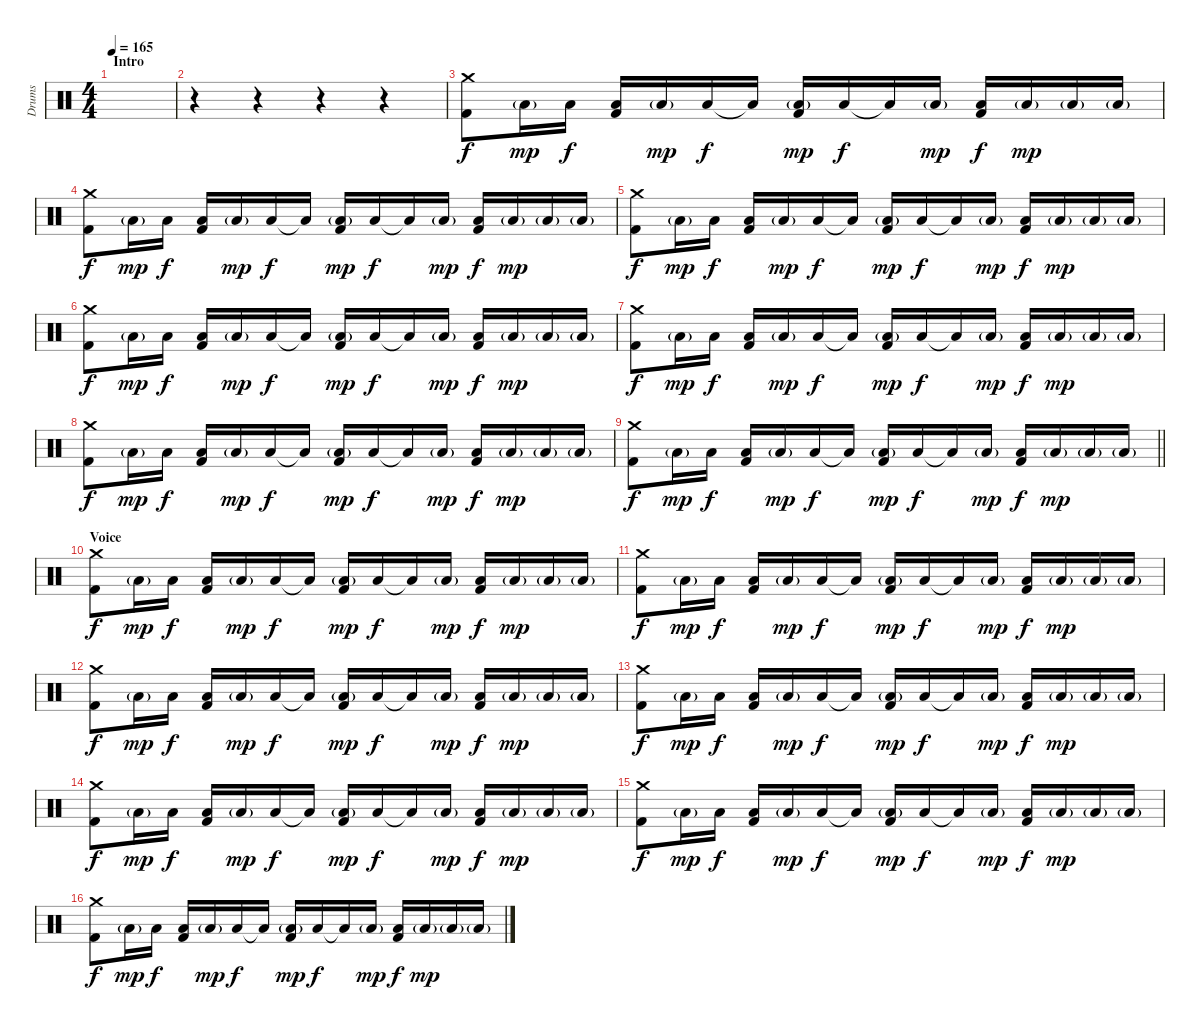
\track ("Drums" "Drums") {instrument percussion}
\staff {score}
\articulation defaults
\ts (4 4)
\section ("" "Intro")
\tempo 165
\clef neutral
\ks c
|
r.4 r.4 r.4 r.4 |
("Crash medium (hit)" "Kick (hit) 2").8 "Low Tom (hit)"{g}.16{dy mp} "Low Tom (hit)".16{dy f} ("Low Tom (hit)" "Kick (hit) 2").16 "Low Tom (hit)"{g}.16{dy mp} "Low Tom (hit)".16{dy f} "Low Tom (hit)"{t}.16 ("Low Tom (hit)"{g} "Kick (hit) 2").16{dy mp} "Low Tom (hit)".16{dy f} "Low Tom (hit)"{t}.16 "Low Tom (hit)"{g}.16{dy mp} ("Low Tom (hit)" "Kick (hit) 2").16{dy f} "Low Tom (hit)"{g}.16{dy mp} "Low Tom (hit)"{g}.16 "Low Tom (hit)"{g}.16 |
("Crash medium (hit)" "Kick (hit) 2").8{dy f} "Low Tom (hit)"{g}.16{dy mp} "Low Tom (hit)".16{dy f} ("Low Tom (hit)" "Kick (hit) 2").16 "Low Tom (hit)"{g}.16{dy mp} "Low Tom (hit)".16{dy f} "Low Tom (hit)"{t}.16 ("Low Tom (hit)"{g} "Kick (hit) 2").16{dy mp} "Low Tom (hit)".16{dy f} "Low Tom (hit)"{t}.16 "Low Tom (hit)"{g}.16{dy mp} ("Low Tom (hit)" "Kick (hit) 2").16{dy f} "Low Tom (hit)"{g}.16{dy mp} "Low Tom (hit)"{g}.16 "Low Tom (hit)"{g}.16 |
("Crash medium (hit)" "Kick (hit) 2").8{dy f} "Low Tom (hit)"{g}.16{dy mp} "Low Tom (hit)".16{dy f} ("Low Tom (hit)" "Kick (hit) 2").16 "Low Tom (hit)"{g}.16{dy mp} "Low Tom (hit)".16{dy f} "Low Tom (hit)"{t}.16 ("Low Tom (hit)"{g} "Kick (hit) 2").16{dy mp} "Low Tom (hit)".16{dy f} "Low Tom (hit)"{t}.16 "Low Tom (hit)"{g}.16{dy mp} ("Low Tom (hit)" "Kick (hit) 2").16{dy f} "Low Tom (hit)"{g}.16{dy mp} "Low Tom (hit)"{g}.16 "Low Tom (hit)"{g}.16 |
("Crash medium (hit)" "Kick (hit) 2").8{dy f} "Low Tom (hit)"{g}.16{dy mp} "Low Tom (hit)".16{dy f} ("Low Tom (hit)" "Kick (hit) 2").16 "Low Tom (hit)"{g}.16{dy mp} "Low Tom (hit)".16{dy f} "Low Tom (hit)"{t}.16 ("Low Tom (hit)"{g} "Kick (hit) 2").16{dy mp} "Low Tom (hit)".16{dy f} "Low Tom (hit)"{t}.16 "Low Tom (hit)"{g}.16{dy mp} ("Low Tom (hit)" "Kick (hit) 2").16{dy f} "Low Tom (hit)"{g}.16{dy mp} "Low Tom (hit)"{g}.16 "Low Tom (hit)"{g}.16 |
("Crash medium (hit)" "Kick (hit) 2").8{dy f} "Low Tom (hit)"{g}.16{dy mp} "Low Tom (hit)".16{dy f} ("Low Tom (hit)" "Kick (hit) 2").16 "Low Tom (hit)"{g}.16{dy mp} "Low Tom (hit)".16{dy f} "Low Tom (hit)"{t}.16 ("Low Tom (hit)"{g} "Kick (hit) 2").16{dy mp} "Low Tom (hit)".16{dy f} "Low Tom (hit)"{t}.16 "Low Tom (hit)"{g}.16{dy mp} ("Low Tom (hit)" "Kick (hit) 2").16{dy f} "Low Tom (hit)"{g}.16{dy mp} "Low Tom (hit)"{g}.16 "Low Tom (hit)"{g}.16 |
("Crash medium (hit)" "Kick (hit) 2").8{dy f} "Low Tom (hit)"{g}.16{dy mp} "Low Tom (hit)".16{dy f} ("Low Tom (hit)" "Kick (hit) 2").16 "Low Tom (hit)"{g}.16{dy mp} "Low Tom (hit)".16{dy f} "Low Tom (hit)"{t}.16 ("Low Tom (hit)"{g} "Kick (hit) 2").16{dy mp} "Low Tom (hit)".16{dy f} "Low Tom (hit)"{t}.16 "Low Tom (hit)"{g}.16{dy mp} ("Low Tom (hit)" "Kick (hit) 2").16{dy f} "Low Tom (hit)"{g}.16{dy mp} "Low Tom (hit)"{g}.16 "Low Tom (hit)"{g}.16 |
\barLineRight lightlight
("Crash medium (hit)" "Kick (hit) 2").8{dy f} "Low Tom (hit)"{g}.16{dy mp} "Low Tom (hit)".16{dy f} ("Low Tom (hit)" "Kick (hit) 2").16 "Low Tom (hit)"{g}.16{dy mp} "Low Tom (hit)".16{dy f} "Low Tom (hit)"{t}.16 ("Low Tom (hit)"{g} "Kick (hit) 2").16{dy mp} "Low Tom (hit)".16{dy f} "Low Tom (hit)"{t}.16 "Low Tom (hit)"{g}.16{dy mp} ("Low Tom (hit)" "Kick (hit) 2").16{dy f} "Low Tom (hit)"{g}.16{dy mp} "Low Tom (hit)"{g}.16 "Low Tom (hit)"{g}.16 |
\section ("" "Voice")
("Crash medium (hit)" "Kick (hit) 2").8{dy f} "Low Tom (hit)"{g}.16{dy mp} "Low Tom (hit)".16{dy f} ("Low Tom (hit)" "Kick (hit) 2").16 "Low Tom (hit)"{g}.16{dy mp} "Low Tom (hit)".16{dy f} "Low Tom (hit)"{t}.16 ("Low Tom (hit)"{g} "Kick (hit) 2").16{dy mp} "Low Tom (hit)".16{dy f} "Low Tom (hit)"{t}.16 "Low Tom (hit)"{g}.16{dy mp} ("Low Tom (hit)" "Kick (hit) 2").16{dy f} "Low Tom (hit)"{g}.16{dy mp} "Low Tom (hit)"{g}.16 "Low Tom (hit)"{g}.16 |
("Crash medium (hit)" "Kick (hit) 2").8{dy f} "Low Tom (hit)"{g}.16{dy mp} "Low Tom (hit)".16{dy f} ("Low Tom (hit)" "Kick (hit) 2").16 "Low Tom (hit)"{g}.16{dy mp} "Low Tom (hit)".16{dy f} "Low Tom (hit)"{t}.16 ("Low Tom (hit)"{g} "Kick (hit) 2").16{dy mp} "Low Tom (hit)".16{dy f} "Low Tom (hit)"{t}.16 "Low Tom (hit)"{g}.16{dy mp} ("Low Tom (hit)" "Kick (hit) 2").16{dy f} "Low Tom (hit)"{g}.16{dy mp} "Low Tom (hit)"{g}.16 "Low Tom (hit)"{g}.16 |
("Crash medium (hit)" "Kick (hit) 2").8{dy f} "Low Tom (hit)"{g}.16{dy mp} "Low Tom (hit)".16{dy f} ("Low Tom (hit)" "Kick (hit) 2").16 "Low Tom (hit)"{g}.16{dy mp} "Low Tom (hit)".16{dy f} "Low Tom (hit)"{t}.16 ("Low Tom (hit)"{g} "Kick (hit) 2").16{dy mp} "Low Tom (hit)".16{dy f} "Low Tom (hit)"{t}.16 "Low Tom (hit)"{g}.16{dy mp} ("Low Tom (hit)" "Kick (hit) 2").16{dy f} "Low Tom (hit)"{g}.16{dy mp} "Low Tom (hit)"{g}.16 "Low Tom (hit)"{g}.16 |
("Crash medium (hit)" "Kick (hit) 2").8{dy f} "Low Tom (hit)"{g}.16{dy mp} "Low Tom (hit)".16{dy f} ("Low Tom (hit)" "Kick (hit) 2").16 "Low Tom (hit)"{g}.16{dy mp} "Low Tom (hit)".16{dy f} "Low Tom (hit)"{t}.16 ("Low Tom (hit)"{g} "Kick (hit) 2").16{dy mp} "Low Tom (hit)".16{dy f} "Low Tom (hit)"{t}.16 "Low Tom (hit)"{g}.16{dy mp} ("Low Tom (hit)" "Kick (hit) 2").16{dy f} "Low Tom (hit)"{g}.16{dy mp} "Low Tom (hit)"{g}.16 "Low Tom (hit)"{g}.16 |
("Crash medium (hit)" "Kick (hit) 2").8{dy f} "Low Tom (hit)"{g}.16{dy mp} "Low Tom (hit)".16{dy f} ("Low Tom (hit)" "Kick (hit) 2").16 "Low Tom (hit)"{g}.16{dy mp} "Low Tom (hit)".16{dy f} "Low Tom (hit)"{t}.16 ("Low Tom (hit)"{g} "Kick (hit) 2").16{dy mp} "Low Tom (hit)".16{dy f} "Low Tom (hit)"{t}.16 "Low Tom (hit)"{g}.16{dy mp} ("Low Tom (hit)" "Kick (hit) 2").16{dy f} "Low Tom (hit)"{g}.16{dy mp} "Low Tom (hit)"{g}.16 "Low Tom (hit)"{g}.16 |
("Crash medium (hit)" "Kick (hit) 2").8{dy f} "Low Tom (hit)"{g}.16{dy mp} "Low Tom (hit)".16{dy f} ("Low Tom (hit)" "Kick (hit) 2").16 "Low Tom (hit)"{g}.16{dy mp} "Low Tom (hit)".16{dy f} "Low Tom (hit)"{t}.16 ("Low Tom (hit)"{g} "Kick (hit) 2").16{dy mp} "Low Tom (hit)".16{dy f} "Low Tom (hit)"{t}.16 "Low Tom (hit)"{g}.16{dy mp} ("Low Tom (hit)" "Kick (hit) 2").16{dy f} "Low Tom (hit)"{g}.16{dy mp} "Low Tom (hit)"{g}.16 "Low Tom (hit)"{g}.16 |
("Crash medium (hit)" "Kick (hit) 2").8{dy f} "Low Tom (hit)"{g}.16{dy mp} "Low Tom (hit)".16{dy f} ("Low Tom (hit)" "Kick (hit) 2").16 "Low Tom (hit)"{g}.16{dy mp} "Low Tom (hit)".16{dy f} "Low Tom (hit)"{t}.16 ("Low Tom (hit)"{g} "Kick (hit) 2").16{dy mp} "Low Tom (hit)".16{dy f} "Low Tom (hit)"{t}.16 "Low Tom (hit)"{g}.16{dy mp} ("Low Tom (hit)" "Kick (hit) 2").16{dy f} "Low Tom (hit)"{g}.16{dy mp} "Low Tom (hit)"{g}.16 "Low Tom (hit)"{g}.16
